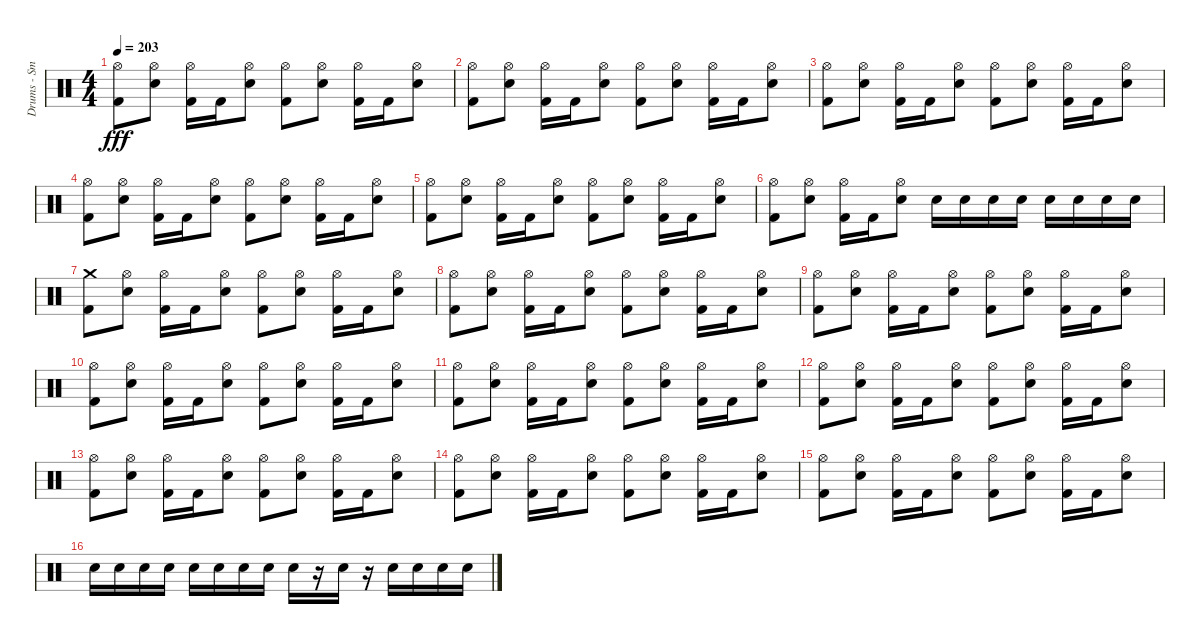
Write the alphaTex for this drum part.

\track ("Drums - Smelly" "Drums - Sm") {instrument percussion}
\staff {score}
\articulation defaults
\ts (4 4)
\tempo 203
\clef neutral
\ks c
("Kick (hit) 2" "Hi-Hat (open)").8{dy fff} ("Electric Snare (hit)" "Hi-Hat (open)").8 ("Kick (hit) 2" "Hi-Hat (open)").16 "Kick (hit) 2".16 ("Electric Snare (hit)" "Hi-Hat (open)").8 ("Kick (hit) 2" "Hi-Hat (open)").8 ("Electric Snare (hit)" "Hi-Hat (open)").8 ("Kick (hit) 2" "Hi-Hat (open)").16 "Kick (hit) 2".16 ("Electric Snare (hit)" "Hi-Hat (open)").8 |
("Kick (hit) 2" "Hi-Hat (open)").8 ("Electric Snare (hit)" "Hi-Hat (open)").8 ("Kick (hit) 2" "Hi-Hat (open)").16 "Kick (hit) 2".16 ("Electric Snare (hit)" "Hi-Hat (open)").8 ("Kick (hit) 2" "Hi-Hat (open)").8 ("Electric Snare (hit)" "Hi-Hat (open)").8 ("Kick (hit) 2" "Hi-Hat (open)").16 "Kick (hit) 2".16 ("Electric Snare (hit)" "Hi-Hat (open)").8 |
("Kick (hit) 2" "Hi-Hat (open)").8 ("Electric Snare (hit)" "Hi-Hat (open)").8 ("Kick (hit) 2" "Hi-Hat (open)").16 "Kick (hit) 2".16 ("Electric Snare (hit)" "Hi-Hat (open)").8 ("Kick (hit) 2" "Hi-Hat (open)").8 ("Electric Snare (hit)" "Hi-Hat (open)").8 ("Kick (hit) 2" "Hi-Hat (open)").16 "Kick (hit) 2".16 ("Electric Snare (hit)" "Hi-Hat (open)").8 |
("Kick (hit) 2" "Hi-Hat (open)").8 ("Electric Snare (hit)" "Hi-Hat (open)").8 ("Kick (hit) 2" "Hi-Hat (open)").16 "Kick (hit) 2".16 ("Electric Snare (hit)" "Hi-Hat (open)").8 ("Kick (hit) 2" "Hi-Hat (open)").8 ("Electric Snare (hit)" "Hi-Hat (open)").8 ("Kick (hit) 2" "Hi-Hat (open)").16 "Kick (hit) 2".16 ("Electric Snare (hit)" "Hi-Hat (open)").8 |
("Kick (hit) 2" "Hi-Hat (open)").8 ("Electric Snare (hit)" "Hi-Hat (open)").8 ("Kick (hit) 2" "Hi-Hat (open)").16 "Kick (hit) 2".16 ("Electric Snare (hit)" "Hi-Hat (open)").8 ("Kick (hit) 2" "Hi-Hat (open)").8 ("Electric Snare (hit)" "Hi-Hat (open)").8 ("Kick (hit) 2" "Hi-Hat (open)").16 "Kick (hit) 2".16 ("Electric Snare (hit)" "Hi-Hat (open)").8 |
("Kick (hit) 2" "Hi-Hat (open)").8 ("Electric Snare (hit)" "Hi-Hat (open)").8 ("Kick (hit) 2" "Hi-Hat (open)").16 "Kick (hit) 2".16 ("Electric Snare (hit)" "Hi-Hat (open)").8 "Electric Snare (hit)".16 "Electric Snare (hit)".16 "Electric Snare (hit)".16 "Electric Snare (hit)".16 "Electric Snare (hit)".16 "Electric Snare (hit)".16 "Electric Snare (hit)".16 "Electric Snare (hit)".16 |
("Kick (hit) 2" "Crash medium (hit)").8 ("Electric Snare (hit)" "Hi-Hat (open)").8 ("Kick (hit) 2" "Hi-Hat (open)").16 "Kick (hit) 2".16 ("Electric Snare (hit)" "Hi-Hat (open)").8 ("Kick (hit) 2" "Hi-Hat (open)").8 ("Electric Snare (hit)" "Hi-Hat (open)").8 ("Kick (hit) 2" "Hi-Hat (open)").16 "Kick (hit) 2".16 ("Electric Snare (hit)" "Hi-Hat (open)").8 |
("Kick (hit) 2" "Hi-Hat (open)").8 ("Electric Snare (hit)" "Hi-Hat (open)").8 ("Kick (hit) 2" "Hi-Hat (open)").16 "Kick (hit) 2".16 ("Electric Snare (hit)" "Hi-Hat (open)").8 ("Kick (hit) 2" "Hi-Hat (open)").8 ("Electric Snare (hit)" "Hi-Hat (open)").8 ("Kick (hit) 2" "Hi-Hat (open)").16 "Kick (hit) 2".16 ("Electric Snare (hit)" "Hi-Hat (open)").8 |
("Kick (hit) 2" "Hi-Hat (open)").8 ("Electric Snare (hit)" "Hi-Hat (open)").8 ("Kick (hit) 2" "Hi-Hat (open)").16 "Kick (hit) 2".16 ("Electric Snare (hit)" "Hi-Hat (open)").8 ("Kick (hit) 2" "Hi-Hat (open)").8 ("Electric Snare (hit)" "Hi-Hat (open)").8 ("Kick (hit) 2" "Hi-Hat (open)").16 "Kick (hit) 2".16 ("Electric Snare (hit)" "Hi-Hat (open)").8 |
("Kick (hit) 2" "Hi-Hat (open)").8 ("Electric Snare (hit)" "Hi-Hat (open)").8 ("Kick (hit) 2" "Hi-Hat (open)").16 "Kick (hit) 2".16 ("Electric Snare (hit)" "Hi-Hat (open)").8 ("Kick (hit) 2" "Hi-Hat (open)").8 ("Electric Snare (hit)" "Hi-Hat (open)").8 ("Kick (hit) 2" "Hi-Hat (open)").16 "Kick (hit) 2".16 ("Electric Snare (hit)" "Hi-Hat (open)").8 |
("Kick (hit) 2" "Hi-Hat (open)").8 ("Electric Snare (hit)" "Hi-Hat (open)").8 ("Kick (hit) 2" "Hi-Hat (open)").16 "Kick (hit) 2".16 ("Electric Snare (hit)" "Hi-Hat (open)").8 ("Kick (hit) 2" "Hi-Hat (open)").8 ("Electric Snare (hit)" "Hi-Hat (open)").8 ("Kick (hit) 2" "Hi-Hat (open)").16 "Kick (hit) 2".16 ("Electric Snare (hit)" "Hi-Hat (open)").8 |
("Kick (hit) 2" "Hi-Hat (open)").8 ("Electric Snare (hit)" "Hi-Hat (open)").8 ("Kick (hit) 2" "Hi-Hat (open)").16 "Kick (hit) 2".16 ("Electric Snare (hit)" "Hi-Hat (open)").8 ("Kick (hit) 2" "Hi-Hat (open)").8 ("Electric Snare (hit)" "Hi-Hat (open)").8 ("Kick (hit) 2" "Hi-Hat (open)").16 "Kick (hit) 2".16 ("Electric Snare (hit)" "Hi-Hat (open)").8 |
("Kick (hit) 2" "Hi-Hat (open)").8 ("Electric Snare (hit)" "Hi-Hat (open)").8 ("Kick (hit) 2" "Hi-Hat (open)").16 "Kick (hit) 2".16 ("Electric Snare (hit)" "Hi-Hat (open)").8 ("Kick (hit) 2" "Hi-Hat (open)").8 ("Electric Snare (hit)" "Hi-Hat (open)").8 ("Kick (hit) 2" "Hi-Hat (open)").16 "Kick (hit) 2".16 ("Electric Snare (hit)" "Hi-Hat (open)").8 |
("Kick (hit) 2" "Hi-Hat (open)").8 ("Electric Snare (hit)" "Hi-Hat (open)").8 ("Kick (hit) 2" "Hi-Hat (open)").16 "Kick (hit) 2".16 ("Electric Snare (hit)" "Hi-Hat (open)").8 ("Kick (hit) 2" "Hi-Hat (open)").8 ("Electric Snare (hit)" "Hi-Hat (open)").8 ("Kick (hit) 2" "Hi-Hat (open)").16 "Kick (hit) 2".16 ("Electric Snare (hit)" "Hi-Hat (open)").8 |
("Kick (hit) 2" "Hi-Hat (open)").8 ("Electric Snare (hit)" "Hi-Hat (open)").8 ("Kick (hit) 2" "Hi-Hat (open)").16 "Kick (hit) 2".16 ("Electric Snare (hit)" "Hi-Hat (open)").8 ("Kick (hit) 2" "Hi-Hat (open)").8 ("Electric Snare (hit)" "Hi-Hat (open)").8 ("Kick (hit) 2" "Hi-Hat (open)").16 "Kick (hit) 2".16 ("Electric Snare (hit)" "Hi-Hat (open)").8 |
"Electric Snare (hit)".16 "Electric Snare (hit)".16 "Electric Snare (hit)".16 "Electric Snare (hit)".16 "Electric Snare (hit)".16 "Electric Snare (hit)".16 "Electric Snare (hit)".16 "Electric Snare (hit)".16 "Electric Snare (hit)".16 r.16 "Electric Snare (hit)".16 r.16 "Electric Snare (hit)".16 "Electric Snare (hit)".16 "Electric Snare (hit)".16 "Electric Snare (hit)".16
